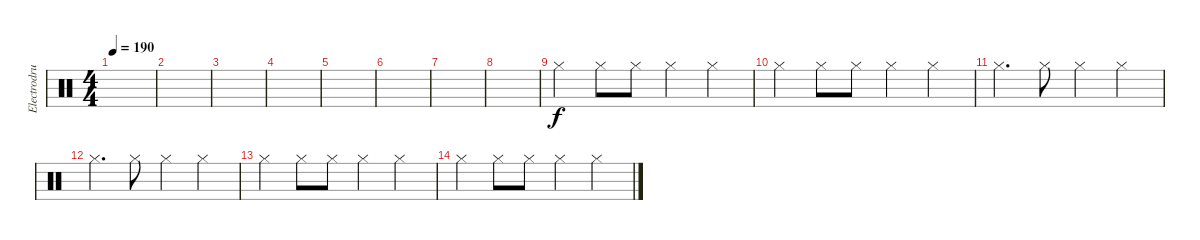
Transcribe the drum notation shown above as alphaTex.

\track ("Electrodrums1" "Electrodru") {instrument percussion}
\staff {score}
\articulation defaults
\ts (4 4)
\tempo 190
\clef neutral
\ks c
|
|
|
|
|
|
|
|
"Hi-Hat (closed)".4 "Hi-Hat (closed)".8 "Hi-Hat (closed)".8 "Hi-Hat (closed)".4 "Hi-Hat (closed)".4 |
"Hi-Hat (closed)".4 "Hi-Hat (closed)".8 "Hi-Hat (closed)".8 "Hi-Hat (closed)".4 "Hi-Hat (closed)".4 |
"Hi-Hat (closed)".4{d} "Hi-Hat (closed)".8 "Hi-Hat (closed)".4 "Hi-Hat (closed)".4 |
"Hi-Hat (closed)".4{d} "Hi-Hat (closed)".8 "Hi-Hat (closed)".4 "Hi-Hat (closed)".4 |
"Hi-Hat (closed)".4 "Hi-Hat (closed)".8 "Hi-Hat (closed)".8 "Hi-Hat (closed)".4 "Hi-Hat (closed)".4 |
"Hi-Hat (closed)".4 "Hi-Hat (closed)".8 "Hi-Hat (closed)".8 "Hi-Hat (closed)".4 "Hi-Hat (closed)".4
